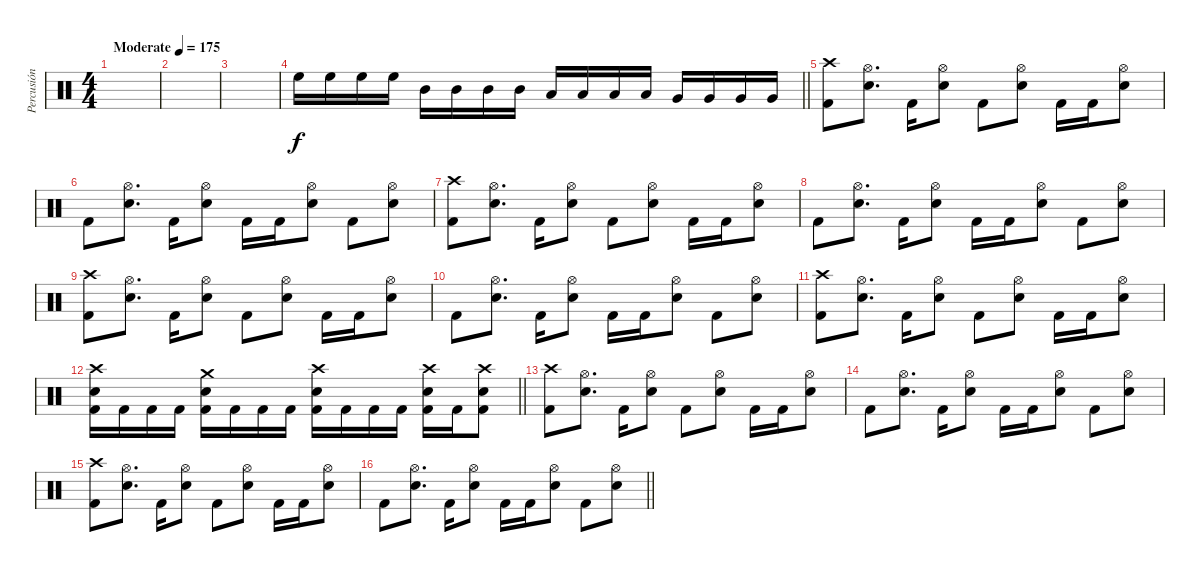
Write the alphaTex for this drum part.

\track ("Percusión" "Percusión") {instrument percussion}
\staff {score}
\articulation defaults
\ts (4 4)
\tempo (175 "Moderate")
\clef neutral
\ks c
|
|
|
\barLineRight lightlight "High Floor Tom (hit)".16 "High Floor Tom (hit)".16 "High Floor Tom (hit)".16 "High Floor Tom (hit)".16 "Mid Tom (hit)".16 "Mid Tom (hit)".16 "Mid Tom (hit)".16 "Mid Tom (hit)".16 "Low Floor Tom (hit)".16 "Low Floor Tom (hit)".16 "Low Floor Tom (hit)".16 "Low Floor Tom (hit)".16 "Very Low Tom (hit)".16 "Very Low Tom (hit)".16 "Very Low Tom (hit)".16 "Very Low Tom (hit)".16
|
("Crash high (hit)" "Kick (hit) 2").8 ("Hi-Hat (open)" "Electric Snare (hit)").8{d} "Kick (hit) 2".16 ("Hi-Hat (open)" "Electric Snare (hit)").8 "Kick (hit) 2".8 ("Hi-Hat (open)" "Electric Snare (hit)").8 "Kick (hit) 2".16 "Kick (hit) 2".16 ("Hi-Hat (open)" "Electric Snare (hit)").8 |
"Kick (hit) 2".8 ("Hi-Hat (open)" "Electric Snare (hit)").8{d} "Kick (hit) 2".16 ("Hi-Hat (open)" "Electric Snare (hit)").8 "Kick (hit) 2".16 "Kick (hit) 2".16 ("Hi-Hat (open)" "Electric Snare (hit)").8 "Kick (hit) 2".8 ("Hi-Hat (open)" "Electric Snare (hit)").8 |
("Crash high (hit)" "Kick (hit) 2").8 ("Hi-Hat (open)" "Electric Snare (hit)").8{d} "Kick (hit) 2".16 ("Hi-Hat (open)" "Electric Snare (hit)").8 "Kick (hit) 2".8 ("Hi-Hat (open)" "Electric Snare (hit)").8 "Kick (hit) 2".16 "Kick (hit) 2".16 ("Hi-Hat (open)" "Electric Snare (hit)").8 |
"Kick (hit) 2".8 ("Hi-Hat (open)" "Electric Snare (hit)").8{d} "Kick (hit) 2".16 ("Hi-Hat (open)" "Electric Snare (hit)").8 "Kick (hit) 2".16 "Kick (hit) 2".16 ("Hi-Hat (open)" "Electric Snare (hit)").8 "Kick (hit) 2".8 ("Hi-Hat (open)" "Electric Snare (hit)").8 |
("Crash high (hit)" "Kick (hit) 2").8 ("Hi-Hat (open)" "Electric Snare (hit)").8{d} "Kick (hit) 2".16 ("Hi-Hat (open)" "Electric Snare (hit)").8 "Kick (hit) 2".8 ("Hi-Hat (open)" "Electric Snare (hit)").8 "Kick (hit) 2".16 "Kick (hit) 2".16 ("Hi-Hat (open)" "Electric Snare (hit)").8 |
"Kick (hit) 2".8 ("Hi-Hat (open)" "Electric Snare (hit)").8{d} "Kick (hit) 2".16 ("Hi-Hat (open)" "Electric Snare (hit)").8 "Kick (hit) 2".16 "Kick (hit) 2".16 ("Hi-Hat (open)" "Electric Snare (hit)").8 "Kick (hit) 2".8 ("Hi-Hat (open)" "Electric Snare (hit)").8 |
("Crash high (hit)" "Kick (hit) 2").8 ("Hi-Hat (open)" "Electric Snare (hit)").8{d} "Kick (hit) 2".16 ("Hi-Hat (open)" "Electric Snare (hit)").8 "Kick (hit) 2".8 ("Hi-Hat (open)" "Electric Snare (hit)").8 "Kick (hit) 2".16 "Kick (hit) 2".16 ("Hi-Hat (open)" "Electric Snare (hit)").8 |
\barLineRight lightlight
("Crash high (hit)" "Electric Snare (hit)" "Kick (hit) 2").16 "Kick (hit) 2".16 "Kick (hit) 2".16 "Kick (hit) 2".16 ("Crash medium (hit)" "Electric Snare (hit)" "Kick (hit) 2").16 "Kick (hit) 2".16 "Kick (hit) 2".16 "Kick (hit) 2".16 ("Crash high (hit)" "Electric Snare (hit)" "Kick (hit) 2").16 "Kick (hit) 2".16 "Kick (hit) 2".16 "Kick (hit) 2".16 ("Crash high (hit)" "Electric Snare (hit)" "Kick (hit) 2").16 "Kick (hit) 2".16 ("Crash high (hit)" "Electric Snare (hit)" "Kick (hit) 2").8 |
("Crash high (hit)" "Kick (hit) 2").8 ("Hi-Hat (open)" "Electric Snare (hit)").8{d} "Kick (hit) 2".16 ("Hi-Hat (open)" "Electric Snare (hit)").8 "Kick (hit) 2".8 ("Hi-Hat (open)" "Electric Snare (hit)").8 "Kick (hit) 2".16 "Kick (hit) 2".16 ("Hi-Hat (open)" "Electric Snare (hit)").8 |
"Kick (hit) 2".8 ("Hi-Hat (open)" "Electric Snare (hit)").8{d} "Kick (hit) 2".16 ("Hi-Hat (open)" "Electric Snare (hit)").8 "Kick (hit) 2".16 "Kick (hit) 2".16 ("Hi-Hat (open)" "Electric Snare (hit)").8 "Kick (hit) 2".8 ("Hi-Hat (open)" "Electric Snare (hit)").8 |
("Crash high (hit)" "Kick (hit) 2").8 ("Hi-Hat (open)" "Electric Snare (hit)").8{d} "Kick (hit) 2".16 ("Hi-Hat (open)" "Electric Snare (hit)").8 "Kick (hit) 2".8 ("Hi-Hat (open)" "Electric Snare (hit)").8 "Kick (hit) 2".16 "Kick (hit) 2".16 ("Hi-Hat (open)" "Electric Snare (hit)").8 |
\barLineRight lightlight "Kick (hit) 2".8
("Hi-Hat (open)" "Electric Snare (hit)").8{d} "Kick (hit) 2".16 ("Hi-Hat (open)" "Electric Snare (hit)").8 "Kick (hit) 2".16 "Kick (hit) 2".16 ("Hi-Hat (open)" "Electric Snare (hit)").8 "Kick (hit) 2".8 ("Hi-Hat (open)" "Electric Snare (hit)").8
